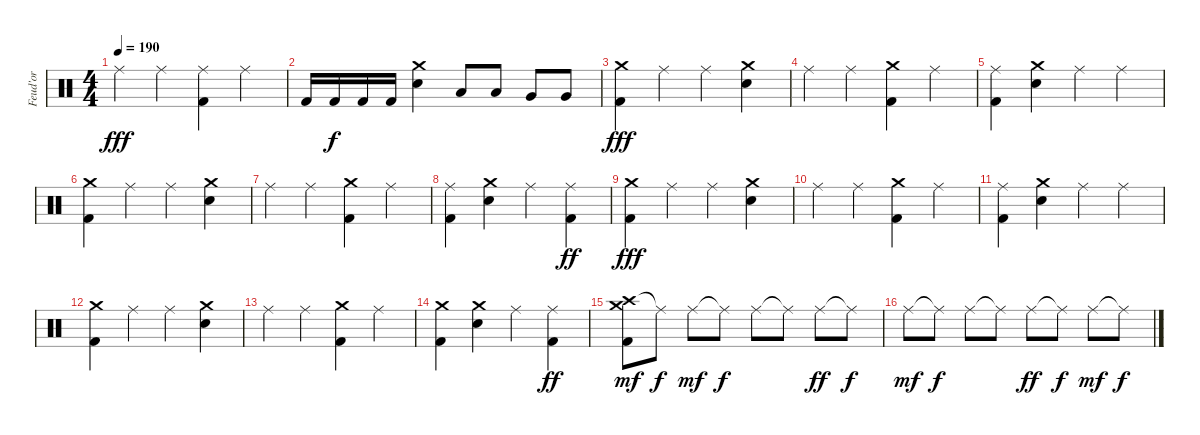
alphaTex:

\track ("Feud'or" "Feud'or") {instrument percussion}
\staff {score}
\articulation defaults
\ts (4 4)
\tempo 190
\clef neutral
\ks c "Ride (middle)".4{dy fff} "Ride (middle)".4
("Ride (middle)" "Kick (hit) 2").4 "Ride (middle)".4 |
"Kick (hit) 2".16 "Kick (hit) 2".16{dy f} "Kick (hit) 2".16 "Kick (hit) 2".16 ("Crash medium (hit)" "Snare (hit) 2").4 "Low Tom (hit)".8 "Low Tom (hit)".8 "Very Low Tom (hit)".8 "Very Low Tom (hit)".8 |
("Crash medium (hit)" "Kick (hit) 2").4{dy fff} "Ride (middle)".4 "Ride (middle)".4 ("Crash medium (hit)" "Snare (hit) 2").4 |
"Ride (middle)".4 "Ride (middle)".4 ("Crash medium (hit)" "Kick (hit) 2").4 "Ride (middle)".4 |
("Ride (middle)" "Kick (hit) 2").4 ("Crash medium (hit)" "Snare (hit) 2").4 "Ride (middle)".4 "Ride (middle)".4 |
("Crash medium (hit)" "Kick (hit) 2").4 "Ride (middle)".4 "Ride (middle)".4 ("Crash medium (hit)" "Snare (hit) 2").4 |
"Ride (middle)".4 "Ride (middle)".4 ("Crash medium (hit)" "Kick (hit) 2").4 "Ride (middle)".4 |
("Ride (middle)" "Kick (hit) 2").4 ("Crash medium (hit)" "Snare (hit) 2").4 "Ride (middle)".4 ("Ride (middle)" "Kick (hit) 2").4{dy ff} |
("Crash medium (hit)" "Kick (hit) 2").4{dy fff} "Ride (middle)".4 "Ride (middle)".4 ("Crash medium (hit)" "Snare (hit) 2").4 |
"Ride (middle)".4 "Ride (middle)".4 ("Crash medium (hit)" "Kick (hit) 2").4 "Ride (middle)".4 |
("Ride (middle)" "Kick (hit) 2").4 ("Crash medium (hit)" "Snare (hit) 2").4 "Ride (middle)".4 "Ride (middle)".4 |
("Crash medium (hit)" "Kick (hit) 2").4 "Ride (middle)".4 "Ride (middle)".4 ("Crash medium (hit)" "Snare (hit) 2").4 |
"Ride (middle)".4 "Ride (middle)".4 ("Crash medium (hit)" "Kick (hit) 2").4 "Ride (middle)".4 |
("Crash medium (hit)" "Kick (hit) 2").4 ("Crash medium (hit)" "Snare (hit) 2").4 "Ride (middle)".4 ("Ride (middle)" "Kick (hit) 2").4{dy ff} |
("Crash high (hit)" "Crash medium (hit)" "Kick (hit) 2").8{dy mf} "Ride (middle)"{t}.8{dy f} "Ride (middle)".8{dy mf} "Ride (middle)"{t}.8{dy f} "Ride (middle)".8 "Ride (middle)"{t}.8 "Ride (middle)".8{dy ff} "Ride (middle)"{t}.8{dy f} |
"Ride (middle)".8{dy mf} "Ride (middle)"{t}.8{dy f} "Ride (middle)".8 "Ride (middle)"{t}.8 "Ride (middle)".8{dy ff} "Ride (middle)"{t}.8{dy f} "Ride (middle)".8{dy mf} "Ride (middle)"{t}.8{dy f}
